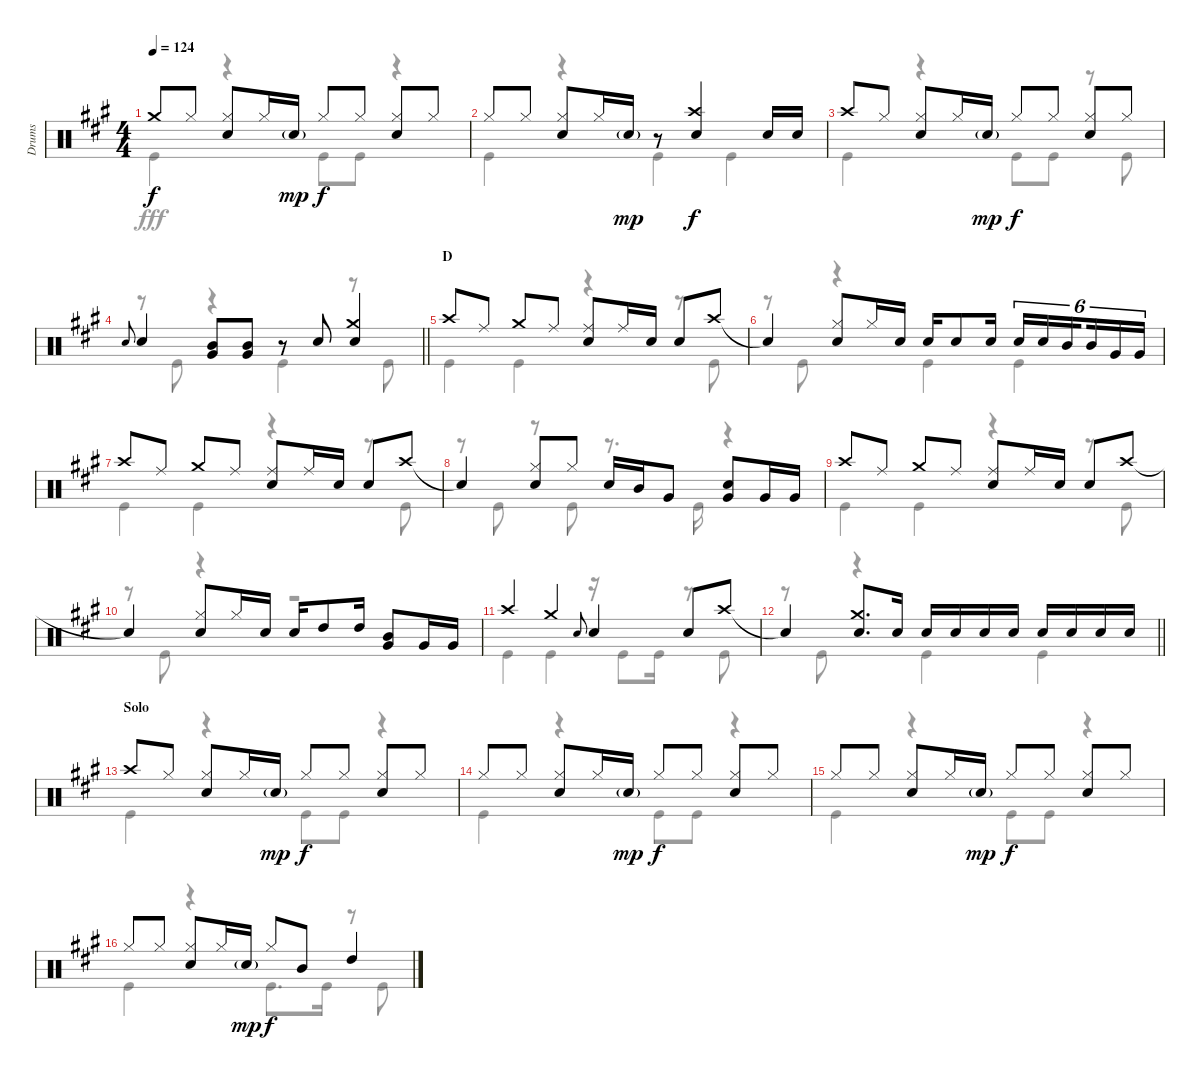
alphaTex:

\track ("Drums" "Drums") {instrument percussion}
\staff {score}
\articulation defaults
\voice
\ts (4 4)
\tempo 124
\clef neutral
\ks a "Crash medium (hit)".8{dy f} "Hi-Hat (closed)".8
("Hi-Hat (closed)" "Snare (hit) 2").8 "Hi-Hat (closed)".16 "Snare (hit) 2"{g}.16{dy mp} "Hi-Hat (closed)".8{dy f} "Hi-Hat (closed)".8 ("Hi-Hat (closed)" "Snare (hit) 2").8 "Hi-Hat (closed)".8 |
"Hi-Hat (closed)".8 "Hi-Hat (closed)".8 ("Hi-Hat (closed)" "Snare (hit) 2").8 "Hi-Hat (closed)".16 "Snare (hit) 2"{g}.16{dy mp} r.8 ("Crash high (hit)" "Snare (hit) 2").4{dy f} "Snare (hit) 2".16 "Snare (hit) 2".16 |
"Crash high (hit)".8 "Hi-Hat (closed)".8 ("Hi-Hat (closed)" "Snare (hit) 2").8 "Hi-Hat (closed)".16 "Snare (hit) 2"{g}.16{dy mp} "Hi-Hat (closed)".8{dy f} "Hi-Hat (closed)".8 ("Hi-Hat (closed)" "Snare (hit) 2").8 "Hi-Hat (closed)".8 |
\barLineRight lightlight "Snare (hit) 2".8{gr onbeat} "Snare (hit) 2".4
("Mid Tom (hit)" "Very Low Tom (hit)").8 ("Mid Tom (hit)" "Very Low Tom (hit)").8 r.8 "Snare (hit) 2".8 ("Crash medium (hit)" "Snare (hit) 2").4 |
\section ("" "D")
"Crash high (hit)".8 "Ride (middle)".8 "Crash medium (hit)".8 "Ride (middle)".8 ("Ride (middle)" "Snare (hit) 2").8 "Ride (middle)".16 "Snare (hit) 2".16 "Snare (hit) 2".8 "Crash high (hit)".8 |
"Snare (hit)"{t}.4 ("Hi-Hat (closed)" "Snare (hit) 2").8 "Hi-Hat (closed)".16 "Snare (hit) 2".16 "Snare (hit) 2".16 "Snare (hit) 2".8 "Snare (hit) 2".16 "Snare (hit) 2".16{tu (6 4)} "Snare (hit) 2".16{tu (6 4)} "Mid Tom (hit)".16{tu (6 4) beam splitsecondary} "Mid Tom (hit)".16{tu (6 4)} "Very Low Tom (hit)".16{tu (6 4)} "Very Low Tom (hit)".16{tu (6 4)} |
"Crash high (hit)".8 "Ride (middle)".8 "Crash medium (hit)".8 "Ride (middle)".8 ("Ride (middle)" "Snare (hit) 2").8 "Ride (middle)".16 "Snare (hit) 2".16 "Snare (hit) 2".8 "Crash high (hit)".8 |
"Snare (hit)"{t}.4 ("Hi-Hat (closed)" "Snare (hit) 2").8 "Hi-Hat (closed)".8 "Snare (hit) 2".16 "Mid Tom (hit)".16 "Very Low Tom (hit)".8 ("Snare (hit) 2" "Very Low Tom (hit)").8 "Very Low Tom (hit)".16 "Very Low Tom (hit)".16 |
"Crash high (hit)".8 "Ride (middle)".8 "Crash medium (hit)".8 "Ride (middle)".8 ("Ride (middle)" "Snare (hit) 2").8 "Ride (middle)".16 "Snare (hit) 2".16 "Snare (hit) 2".8 "Crash high (hit)".8 |
"Snare (hit)"{t}.4 ("Hi-Hat (closed)" "Snare (hit) 2").8 "Hi-Hat (closed)".16 "Snare (hit) 2".16 "Snare (hit) 2".16 "High Tom (hit)".8 "High Tom (hit)".16 ("Mid Tom (hit)" "Very Low Tom (hit)").8 "Very Low Tom (hit)".16 "Very Low Tom (hit)".16 |
"Crash high (hit)".4 "Crash medium (hit)".4 "Snare (hit) 2".8{gr onbeat} "Snare (hit) 2".4 "Snare (hit) 2".8 "Crash high (hit)".8 |
\barLineRight lightlight "Snare (hit)"{t}.4
("Crash medium (hit)" "Snare (hit) 2").8{d} "Snare (hit) 2".16 "Snare (hit) 2".16 "Snare (hit) 2".16 "Snare (hit) 2".16 "Snare (hit) 2".16 "Snare (hit) 2".16 "Snare (hit) 2".16 "Snare (hit) 2".16 "Snare (hit) 2".16 |
\section ("" "Solo")
"Crash high (hit)".8 "Hi-Hat (closed)".8 ("Hi-Hat (closed)" "Snare (hit) 2").8 "Hi-Hat (closed)".16 "Snare (hit) 2"{g}.16{dy mp} "Hi-Hat (closed)".8{dy f} "Hi-Hat (closed)".8 ("Hi-Hat (closed)" "Snare (hit) 2").8 "Hi-Hat (closed)".8 |
"Hi-Hat (closed)".8 "Hi-Hat (closed)".8 ("Hi-Hat (closed)" "Snare (hit) 2").8 "Hi-Hat (closed)".16 "Snare (hit) 2"{g}.16{dy mp} "Hi-Hat (closed)".8{dy f} "Hi-Hat (closed)".8 ("Hi-Hat (closed)" "Snare (hit) 2").8 "Hi-Hat (closed)".8 |
"Hi-Hat (closed)".8 "Hi-Hat (closed)".8 ("Hi-Hat (closed)" "Snare (hit) 2").8 "Hi-Hat (closed)".16 "Snare (hit) 2"{g}.16{dy mp} "Hi-Hat (closed)".8{dy f} "Hi-Hat (closed)".8 ("Hi-Hat (closed)" "Snare (hit) 2").8 "Hi-Hat (closed)".8 |
"Hi-Hat (closed)".8 "Hi-Hat (closed)".8 ("Hi-Hat (closed)" "Snare (hit) 2").8 "Hi-Hat (closed)".16 "Snare (hit) 2"{g}.16{dy mp} "Hi-Hat (closed)".8{dy f} "Mid Tom (hit)".8 "High Tom (hit)".4
\voice
\clef neutral
\ottava regular
\simile none
\ks a "Kick (hit)".4{dy fff}
r.4 "Kick (hit)".8 "Kick (hit)".8 r.4 |
"Kick (hit)".4 r.4 "Kick (hit)".4 "Kick (hit)".4 |
"Kick (hit)".4 r.4 "Kick (hit)".8 "Kick (hit)".8 r.8 "Kick (hit)".8 |
\barLineRight lightlight
r.8 "Kick (hit)".8 r.4 "Kick (hit)".4 r.8 "Kick (hit)".8 |
"Kick (hit)".4 "Kick (hit)".4 r.4 r.8 "Kick (hit)".8 |
r.8 "Kick (hit)".8 r.4 "Kick (hit)".4 "Kick (hit)".4 |
"Kick (hit)".4 "Kick (hit)".4 r.4 r.8 "Kick (hit)".8 |
r.8 "Kick (hit)".8 r.8 "Kick (hit)".8 r.8{d} "Kick (hit)".16 r.4 |
"Kick (hit)".4 "Kick (hit)".4 r.4 r.8 "Kick (hit)".8 |
r.8 "Kick (hit)".8 r.4 r.2 |
"Kick (hit)".4 "Kick (hit)".4 r.16 "Kick (hit)".8 "Kick (hit)".16 r.8 "Kick (hit)".8 |
\barLineRight lightlight
r.8 "Kick (hit)".8 r.4 "Kick (hit)".4 "Kick (hit)".4 |
"Kick (hit)".4 r.4 "Kick (hit)".8 "Kick (hit)".8 r.4 |
"Kick (hit)".4 r.4 "Kick (hit)".8 "Kick (hit)".8 r.4 |
"Kick (hit)".4 r.4 "Kick (hit)".8 "Kick (hit)".8 r.4 |
"Kick (hit)".4 r.4 "Kick (hit)".8{d} "Kick (hit)".16 r.8 "Kick (hit)".8
